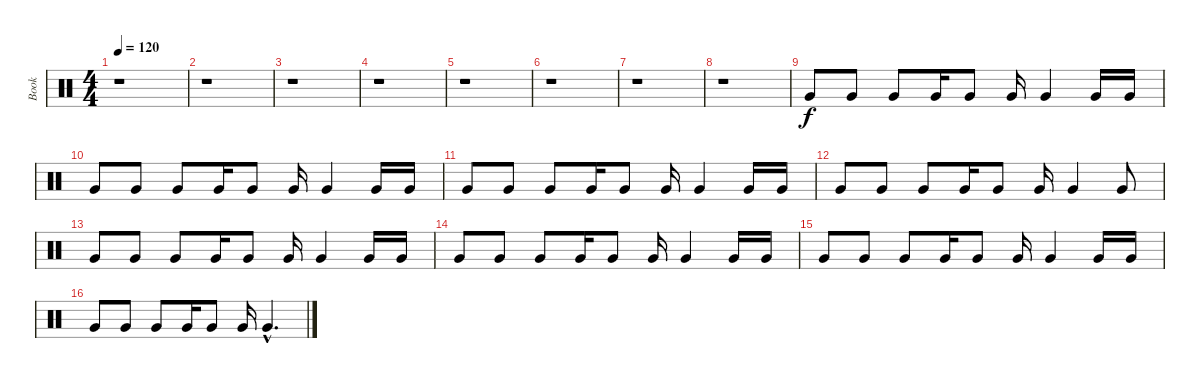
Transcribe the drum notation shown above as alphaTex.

\track ("Book" "Book") {instrument percussion}
\staff {score}
\articulation defaults
\ts (4 4)
\tempo 120
\clef neutral
\ks c
r.1{dy f} |
r.1 |
r.1 |
r.1 |
r.1 |
r.1 |
r.1 |
r.1 |
"Very Low Tom (hit)".8 "Very Low Tom (hit)".8 "Very Low Tom (hit)".8 "Very Low Tom (hit)".16 "Very Low Tom (hit)".8 "Very Low Tom (hit)".16 "Very Low Tom (hit)".4 "Very Low Tom (hit)".16 "Very Low Tom (hit)".16 |
"Very Low Tom (hit)".8 "Very Low Tom (hit)".8 "Very Low Tom (hit)".8 "Very Low Tom (hit)".16 "Very Low Tom (hit)".8 "Very Low Tom (hit)".16 "Very Low Tom (hit)".4 "Very Low Tom (hit)".16 "Very Low Tom (hit)".16 |
"Very Low Tom (hit)".8 "Very Low Tom (hit)".8 "Very Low Tom (hit)".8 "Very Low Tom (hit)".16 "Very Low Tom (hit)".8 "Very Low Tom (hit)".16 "Very Low Tom (hit)".4 "Very Low Tom (hit)".16 "Very Low Tom (hit)".16 |
"Very Low Tom (hit)".8 "Very Low Tom (hit)".8 "Very Low Tom (hit)".8 "Very Low Tom (hit)".16 "Very Low Tom (hit)".8 "Very Low Tom (hit)".16 "Very Low Tom (hit)".4 "Very Low Tom (hit)".8 |
"Very Low Tom (hit)".8 "Very Low Tom (hit)".8 "Very Low Tom (hit)".8 "Very Low Tom (hit)".16 "Very Low Tom (hit)".8 "Very Low Tom (hit)".16 "Very Low Tom (hit)".4 "Very Low Tom (hit)".16 "Very Low Tom (hit)".16 |
"Very Low Tom (hit)".8 "Very Low Tom (hit)".8 "Very Low Tom (hit)".8 "Very Low Tom (hit)".16 "Very Low Tom (hit)".8 "Very Low Tom (hit)".16 "Very Low Tom (hit)".4 "Very Low Tom (hit)".16 "Very Low Tom (hit)".16 |
"Very Low Tom (hit)".8 "Very Low Tom (hit)".8 "Very Low Tom (hit)".8 "Very Low Tom (hit)".16 "Very Low Tom (hit)".8 "Very Low Tom (hit)".16 "Very Low Tom (hit)".4 "Very Low Tom (hit)".16 "Very Low Tom (hit)".16 |
"Very Low Tom (hit)".8 "Very Low Tom (hit)".8 "Very Low Tom (hit)".8 "Very Low Tom (hit)".16 "Very Low Tom (hit)".8 "Very Low Tom (hit)".16 "Very Low Tom (hit)"{hac}.4{d}
